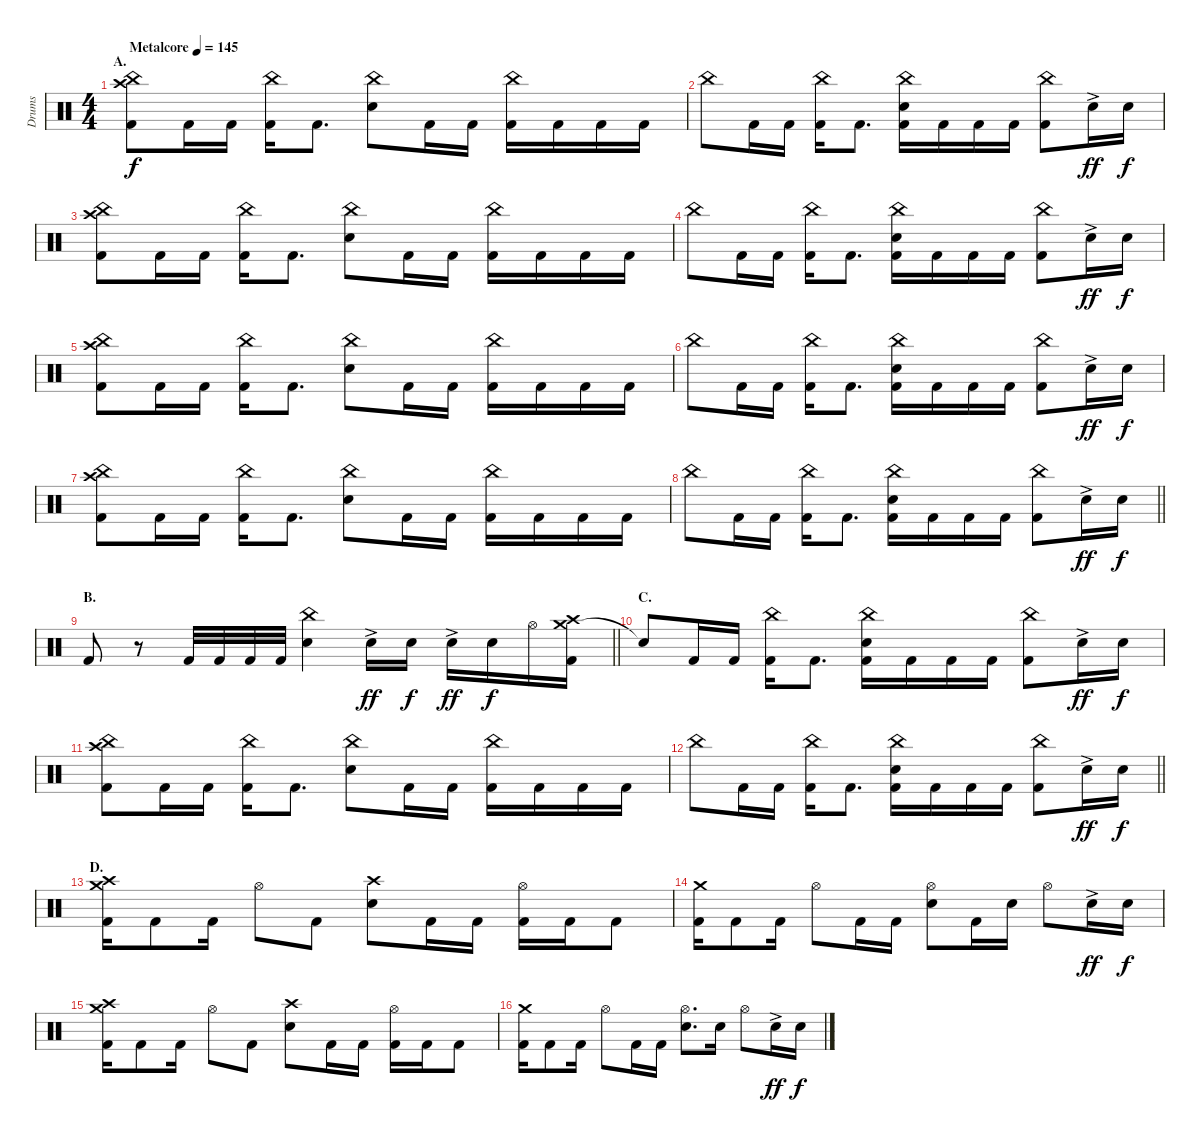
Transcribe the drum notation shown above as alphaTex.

\track ("Drums" "Drums") {instrument percussion}
\staff {score}
\articulation defaults
\ts (4 4)
\section ("" "A.")
\tempo (145 "Metalcore")
\clef neutral
\ks c
("China (hit)" "Crash high (hit)" "Kick (hit) 2").8{dy f} "Kick (hit) 2".16 "Kick (hit) 2".16 ("China (hit)" "Kick (hit) 2").16 "Kick (hit) 2".8{d} ("China (hit)" "Electric Snare (hit)").8 "Kick (hit) 2".16 "Kick (hit) 2".16 ("China (hit)" "Kick (hit) 2").16 "Kick (hit) 2".16 "Kick (hit) 2".16 "Kick (hit) 2".16 |
"China (hit)".8 "Kick (hit) 2".16 "Kick (hit) 2".16 ("China (hit)" "Kick (hit) 2").16 "Kick (hit) 2".8{d} ("China (hit)" "Electric Snare (hit)" "Kick (hit) 2").16 "Kick (hit) 2".16 "Kick (hit) 2".16 "Kick (hit) 2".16 ("China (hit)" "Kick (hit) 2").8 "Electric Snare (hit)"{ac}.16{dy ff} "Electric Snare (hit)".16{dy f} |
("China (hit)" "Crash high (hit)" "Kick (hit) 2").8 "Kick (hit) 2".16 "Kick (hit) 2".16 ("China (hit)" "Kick (hit) 2").16 "Kick (hit) 2".8{d} ("China (hit)" "Electric Snare (hit)").8 "Kick (hit) 2".16 "Kick (hit) 2".16 ("China (hit)" "Kick (hit) 2").16 "Kick (hit) 2".16 "Kick (hit) 2".16 "Kick (hit) 2".16 |
"China (hit)".8 "Kick (hit) 2".16 "Kick (hit) 2".16 ("China (hit)" "Kick (hit) 2").16 "Kick (hit) 2".8{d} ("China (hit)" "Electric Snare (hit)" "Kick (hit) 2").16 "Kick (hit) 2".16 "Kick (hit) 2".16 "Kick (hit) 2".16 ("China (hit)" "Kick (hit) 2").8 "Electric Snare (hit)"{ac}.16{dy ff} "Electric Snare (hit)".16{dy f} |
("China (hit)" "Crash high (hit)" "Kick (hit) 2").8 "Kick (hit) 2".16 "Kick (hit) 2".16 ("China (hit)" "Kick (hit) 2").16 "Kick (hit) 2".8{d} ("China (hit)" "Electric Snare (hit)").8 "Kick (hit) 2".16 "Kick (hit) 2".16 ("China (hit)" "Kick (hit) 2").16 "Kick (hit) 2".16 "Kick (hit) 2".16 "Kick (hit) 2".16 |
"China (hit)".8 "Kick (hit) 2".16 "Kick (hit) 2".16 ("China (hit)" "Kick (hit) 2").16 "Kick (hit) 2".8{d} ("China (hit)" "Electric Snare (hit)" "Kick (hit) 2").16 "Kick (hit) 2".16 "Kick (hit) 2".16 "Kick (hit) 2".16 ("China (hit)" "Kick (hit) 2").8 "Electric Snare (hit)"{ac}.16{dy ff} "Electric Snare (hit)".16{dy f} |
("China (hit)" "Crash high (hit)" "Kick (hit) 2").8 "Kick (hit) 2".16 "Kick (hit) 2".16 ("China (hit)" "Kick (hit) 2").16 "Kick (hit) 2".8{d} ("China (hit)" "Electric Snare (hit)").8 "Kick (hit) 2".16 "Kick (hit) 2".16 ("China (hit)" "Kick (hit) 2").16 "Kick (hit) 2".16 "Kick (hit) 2".16 "Kick (hit) 2".16 |
\barLineRight lightlight "China (hit)".8 "Kick (hit) 2".16 "Kick (hit) 2".16
("China (hit)" "Kick (hit) 2").16 "Kick (hit) 2".8{d} ("China (hit)" "Electric Snare (hit)" "Kick (hit) 2").16 "Kick (hit) 2".16 "Kick (hit) 2".16 "Kick (hit) 2".16 ("China (hit)" "Kick (hit) 2").8 "Electric Snare (hit)"{ac}.16{dy ff} "Electric Snare (hit)".16{dy f} |
\section ("" "B.")
\barLineRight lightlight "Kick (hit) 2".8
r.8 "Kick (hit) 2".32 "Kick (hit) 2".32 "Kick (hit) 2".32 "Kick (hit) 2".32 ("China (hit)" "Electric Snare (hit)").4 "Electric Snare (hit)"{ac}.16{dy ff} "Electric Snare (hit)".16{dy f} "Electric Snare (hit)"{ac}.16{dy ff} "Electric Snare (hit)".16{dy f} "Hi-Hat (open)".16 ("Crash medium (hit)" "Crash high (hit)" "Kick (hit) 2").16 |
\section ("" "C.")
"Snare (hit)"{t}.8 "Kick (hit) 2".16 "Kick (hit) 2".16 ("China (hit)" "Kick (hit) 2").16 "Kick (hit) 2".8{d} ("China (hit)" "Electric Snare (hit)" "Kick (hit) 2").16 "Kick (hit) 2".16 "Kick (hit) 2".16 "Kick (hit) 2".16 ("China (hit)" "Kick (hit) 2").8 "Electric Snare (hit)"{ac}.16{dy ff} "Electric Snare (hit)".16{dy f} |
("China (hit)" "Crash high (hit)" "Kick (hit) 2").8 "Kick (hit) 2".16 "Kick (hit) 2".16 ("China (hit)" "Kick (hit) 2").16 "Kick (hit) 2".8{d} ("China (hit)" "Electric Snare (hit)").8 "Kick (hit) 2".16 "Kick (hit) 2".16 ("China (hit)" "Kick (hit) 2").16 "Kick (hit) 2".16 "Kick (hit) 2".16 "Kick (hit) 2".16 |
\barLineRight lightlight "China (hit)".8 "Kick (hit) 2".16 "Kick (hit) 2".16
("China (hit)" "Kick (hit) 2").16 "Kick (hit) 2".8{d} ("China (hit)" "Electric Snare (hit)" "Kick (hit) 2").16 "Kick (hit) 2".16 "Kick (hit) 2".16 "Kick (hit) 2".16 ("China (hit)" "Kick (hit) 2").8 "Electric Snare (hit)"{ac}.16{dy ff} "Electric Snare (hit)".16{dy f} |
\section ("" "D.")
("Crash medium (hit)" "Crash high (hit)" "Kick (hit) 2").16 "Kick (hit) 2".8 "Kick (hit) 2".16 "Hi-Hat (open)".8 "Kick (hit) 2".8 ("Crash high (hit)" "Electric Snare (hit)").8 "Kick (hit) 2".16 "Kick (hit) 2".16 ("Hi-Hat (open)" "Kick (hit) 2").16 "Kick (hit) 2".16 "Kick (hit) 2".8 |
("Crash medium (hit)" "Kick (hit) 2").16 "Kick (hit) 2".8 "Kick (hit) 2".16 "Hi-Hat (open)".8 "Kick (hit) 2".16 "Kick (hit) 2".16 ("Hi-Hat (open)" "Electric Snare (hit)").8 "Kick (hit) 2".16 "Electric Snare (hit)".16 "Hi-Hat (open)".8 "Electric Snare (hit)"{ac}.16{dy ff} "Electric Snare (hit)".16{dy f} |
("Crash medium (hit)" "Crash high (hit)" "Kick (hit) 2").16 "Kick (hit) 2".8 "Kick (hit) 2".16 "Hi-Hat (open)".8 "Kick (hit) 2".8 ("Crash high (hit)" "Electric Snare (hit)").8 "Kick (hit) 2".16 "Kick (hit) 2".16 ("Hi-Hat (open)" "Kick (hit) 2").16 "Kick (hit) 2".16 "Kick (hit) 2".8 |
("Crash medium (hit)" "Kick (hit) 2").16 "Kick (hit) 2".8 "Kick (hit) 2".16 "Hi-Hat (open)".8 "Kick (hit) 2".16 "Kick (hit) 2".16 ("Hi-Hat (open)" "Electric Snare (hit)").8{d} "Electric Snare (hit)".16 "Hi-Hat (open)".8 "Electric Snare (hit)"{ac}.16{dy ff} "Electric Snare (hit)".16{dy f}
